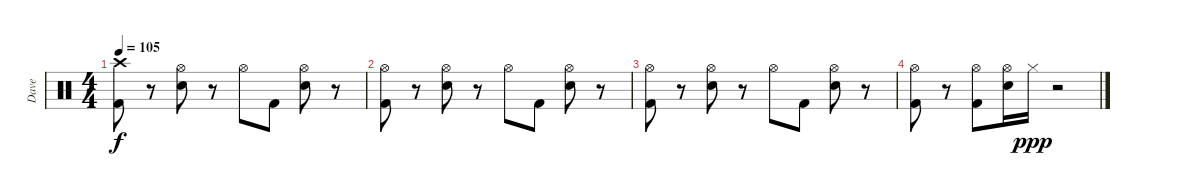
\track ("Dave" "Dave") {instrument percussion}
\staff {score}
\articulation defaults
\ts (4 4)
\tempo 105
\clef neutral
\ks c
("Crash high (hit)" "Kick (hit) 2").8{dy f} r.8 ("Hi-Hat (open)" "Snare (hit) 2").8 r.8 "Hi-Hat (open)".8 "Kick (hit) 2".8 ("Hi-Hat (open)" "Snare (hit) 2").8 r.8 |
("Hi-Hat (open)" "Kick (hit) 2").8 r.8 ("Hi-Hat (open)" "Snare (hit) 2").8 r.8 "Hi-Hat (open)".8 "Kick (hit) 2".8 ("Hi-Hat (open)" "Snare (hit) 2").8 r.8 |
("Hi-Hat (open)" "Kick (hit) 2").8 r.8 ("Hi-Hat (open)" "Snare (hit) 2").8 r.8 "Hi-Hat (open)".8 "Kick (hit) 2".8 ("Hi-Hat (open)" "Snare (hit) 2").8 r.8 |
("Hi-Hat (open)" "Kick (hit) 2").8 r.8 ("Hi-Hat (open)" "Kick (hit) 2").8 ("Hi-Hat (open)" "Snare (hit) 2").16 "Hi-Hat (closed)".16{dy ppp} r.2
